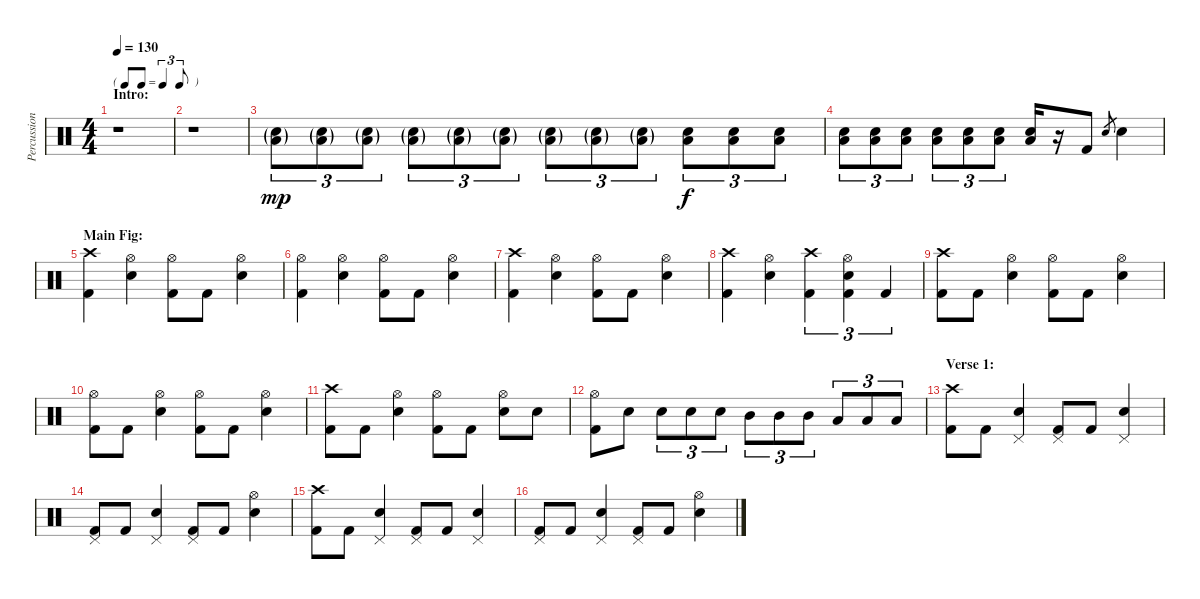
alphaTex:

\track ("Percussion" "Percussion") {instrument percussion}
\staff {score}
\articulation defaults
\ts (4 4)
\tf triplet8th
\section ("" "Intro:")
\tempo 130
\clef neutral
\ks c
r.1{dy mp} |
r.1 |
("Electric Snare (hit)"{g} "Low Tom (hit)"{g}).8{tu (3 2)} ("Electric Snare (hit)"{g} "Low Tom (hit)"{g}).8{tu (3 2)} ("Electric Snare (hit)"{g} "Low Tom (hit)"{g}).8{tu (3 2)} ("Electric Snare (hit)"{g} "Low Tom (hit)"{g}).8{tu (3 2)} ("Electric Snare (hit)"{g} "Low Tom (hit)"{g}).8{tu (3 2)} ("Electric Snare (hit)"{g} "Low Tom (hit)"{g}).8{tu (3 2)} ("Electric Snare (hit)"{g} "Low Tom (hit)"{g}).8{tu (3 2)} ("Electric Snare (hit)"{g} "Low Tom (hit)"{g}).8{tu (3 2)} ("Electric Snare (hit)"{g} "Low Tom (hit)"{g}).8{tu (3 2)} ("Electric Snare (hit)" "Low Tom (hit)").8{tu (3 2) dy f} ("Electric Snare (hit)" "Low Tom (hit)").8{tu (3 2)} ("Electric Snare (hit)" "Low Tom (hit)").8{tu (3 2)} |
("Electric Snare (hit)" "Low Tom (hit)").8{tu (3 2)} ("Electric Snare (hit)" "Low Tom (hit)").8{tu (3 2)} ("Electric Snare (hit)" "Low Tom (hit)").8{tu (3 2)} ("Electric Snare (hit)" "Low Tom (hit)").8{tu (3 2)} ("Electric Snare (hit)" "Low Tom (hit)").8{tu (3 2)} ("Electric Snare (hit)" "Low Tom (hit)").8{tu (3 2)} ("Electric Snare (hit)" "Low Tom (hit)").16 r.16 "Kick (hit) 2".8 "Electric Snare (hit)".8{gr} "Electric Snare (hit)".4 |
\section ("" "Main Fig:")
("Crash high (hit)" "Kick (hit) 2").4 ("Hi-Hat (open)" "Electric Snare (hit)").4 ("Hi-Hat (open)" "Kick (hit) 2").8 "Kick (hit) 2".8 ("Hi-Hat (open)" "Electric Snare (hit)").4 |
("Hi-Hat (open)" "Kick (hit) 2").4 ("Hi-Hat (open)" "Electric Snare (hit)").4 ("Hi-Hat (open)" "Kick (hit) 2").8 "Kick (hit) 2".8 ("Hi-Hat (open)" "Electric Snare (hit)").4 |
("Crash high (hit)" "Kick (hit) 2").4 ("Hi-Hat (open)" "Electric Snare (hit)").4 ("Hi-Hat (open)" "Kick (hit) 2").8 "Kick (hit) 2".8 ("Hi-Hat (open)" "Electric Snare (hit)").4 |
("Crash high (hit)" "Kick (hit) 2").4 ("Hi-Hat (open)" "Electric Snare (hit)").4 ("Crash high (hit)" "Kick (hit) 2").4{tu (3 2)} ("Hi-Hat (open)" "Electric Snare (hit)" "Kick (hit) 2").4{tu (3 2)} "Kick (hit) 2".4{tu (3 2)} |
("Crash high (hit)" "Kick (hit) 2").8 "Kick (hit) 2".8 ("Hi-Hat (open)" "Electric Snare (hit)").4 ("Hi-Hat (open)" "Kick (hit) 2").8 "Kick (hit) 2".8 ("Hi-Hat (open)" "Electric Snare (hit)").4 |
("Hi-Hat (open)" "Kick (hit) 2").8 "Kick (hit) 2".8 ("Hi-Hat (open)" "Electric Snare (hit)").4 ("Hi-Hat (open)" "Kick (hit) 2").8 "Kick (hit) 2".8 ("Hi-Hat (open)" "Electric Snare (hit)").4 |
("Crash high (hit)" "Kick (hit) 2").8 "Kick (hit) 2".8 ("Hi-Hat (open)" "Electric Snare (hit)").4 ("Hi-Hat (open)" "Kick (hit) 2").8 "Kick (hit) 2".8 ("Hi-Hat (open)" "Electric Snare (hit)").8 "Electric Snare (hit)".8 |
("Hi-Hat (open)" "Kick (hit) 2").8 "Electric Snare (hit)".8 "Electric Snare (hit)".8{tu (3 2)} "Electric Snare (hit)".8{tu (3 2)} "Electric Snare (hit)".8{tu (3 2)} "Mid Tom (hit)".8{tu (3 2)} "Mid Tom (hit)".8{tu (3 2)} "Mid Tom (hit)".8{tu (3 2)} "Low Tom (hit)".8{tu (3 2)} "Low Tom (hit)".8{tu (3 2)} "Low Tom (hit)".8{tu (3 2)} |
\section ("" "Verse 1:")
("Crash high (hit)" "Kick (hit) 2").8 "Kick (hit) 2".8 ("Pedal Hi-Hat (hit)" "Electric Snare (hit)").4 ("Pedal Hi-Hat (hit)" "Kick (hit) 2").8 "Kick (hit) 2".8 ("Pedal Hi-Hat (hit)" "Electric Snare (hit)").4 |
("Pedal Hi-Hat (hit)" "Kick (hit) 2").8 "Kick (hit) 2".8 ("Pedal Hi-Hat (hit)" "Electric Snare (hit)").4 ("Pedal Hi-Hat (hit)" "Kick (hit) 2").8 "Kick (hit) 2".8 ("Hi-Hat (open)" "Electric Snare (hit)").4 |
("Crash high (hit)" "Kick (hit) 2").8 "Kick (hit) 2".8 ("Pedal Hi-Hat (hit)" "Electric Snare (hit)").4 ("Pedal Hi-Hat (hit)" "Kick (hit) 2").8 "Kick (hit) 2".8 ("Pedal Hi-Hat (hit)" "Electric Snare (hit)").4 |
("Pedal Hi-Hat (hit)" "Kick (hit) 2").8 "Kick (hit) 2".8 ("Pedal Hi-Hat (hit)" "Electric Snare (hit)").4 ("Pedal Hi-Hat (hit)" "Kick (hit) 2").8 "Kick (hit) 2".8 ("Hi-Hat (open)" "Electric Snare (hit)").4
